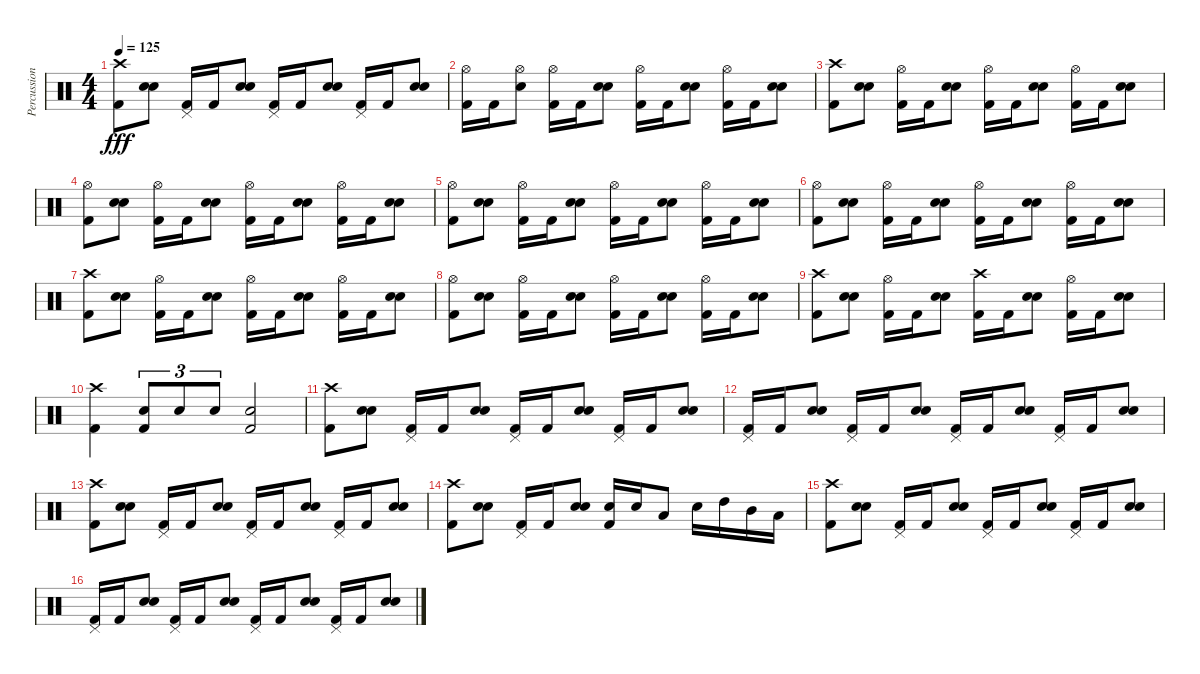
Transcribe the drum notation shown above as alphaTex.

\track ("Percussion" "Percussion") {instrument percussion}
\staff {score}
\articulation defaults
\ts (4 4)
\tempo 125
\clef neutral
\ks c
("Crash high (hit)" "Kick (hit) 2").8{dy fff} ("Snare (hit) 2" "Snare (hit) 2").8 ("Pedal Hi-Hat (hit)" "Kick (hit) 2").16 "Kick (hit) 2".16 ("Snare (hit) 2" "Snare (hit) 2").8 ("Pedal Hi-Hat (hit)" "Kick (hit) 2").16 "Kick (hit) 2".16 ("Snare (hit) 2" "Snare (hit) 2").8 ("Pedal Hi-Hat (hit)" "Kick (hit) 2").16 "Kick (hit) 2".16 ("Snare (hit) 2" "Snare (hit) 2").8 |
("Hi-Hat (open)" "Kick (hit) 2").16 "Kick (hit) 2".16 ("Hi-Hat (open)" "Snare (hit) 2").8 ("Hi-Hat (open)" "Kick (hit) 2").16 "Kick (hit) 2".16 ("Snare (hit) 2" "Snare (hit) 2").8 ("Hi-Hat (open)" "Kick (hit) 2").16 "Kick (hit) 2".16 ("Snare (hit) 2" "Snare (hit) 2").8 ("Hi-Hat (open)" "Kick (hit) 2").16 "Kick (hit) 2".16 ("Snare (hit) 2" "Snare (hit) 2").8 |
("Crash high (hit)" "Kick (hit) 2").8 ("Snare (hit) 2" "Snare (hit) 2").8 ("Hi-Hat (open)" "Kick (hit) 2").16 "Kick (hit) 2".16 ("Snare (hit) 2" "Snare (hit) 2").8 ("Hi-Hat (open)" "Kick (hit) 2").16 "Kick (hit) 2".16 ("Snare (hit) 2" "Snare (hit) 2").8 ("Hi-Hat (open)" "Kick (hit) 2").16 "Kick (hit) 2".16 ("Snare (hit) 2" "Snare (hit) 2").8 |
("Hi-Hat (open)" "Kick (hit) 2").8 ("Snare (hit) 2" "Snare (hit) 2").8 ("Hi-Hat (open)" "Kick (hit) 2").16 "Kick (hit) 2".16 ("Snare (hit) 2" "Snare (hit) 2").8 ("Hi-Hat (open)" "Kick (hit) 2").16 "Kick (hit) 2".16 ("Snare (hit) 2" "Snare (hit) 2").8 ("Hi-Hat (open)" "Kick (hit) 2").16 "Kick (hit) 2".16 ("Snare (hit) 2" "Snare (hit) 2").8 |
("Hi-Hat (open)" "Kick (hit) 2").8 ("Snare (hit) 2" "Snare (hit) 2").8 ("Hi-Hat (open)" "Kick (hit) 2").16 "Kick (hit) 2".16 ("Snare (hit) 2" "Snare (hit) 2").8 ("Hi-Hat (open)" "Kick (hit) 2").16 "Kick (hit) 2".16 ("Snare (hit) 2" "Snare (hit) 2").8 ("Hi-Hat (open)" "Kick (hit) 2").16 "Kick (hit) 2".16 ("Snare (hit) 2" "Snare (hit) 2").8 |
("Hi-Hat (open)" "Kick (hit) 2").8 ("Snare (hit) 2" "Snare (hit) 2").8 ("Hi-Hat (open)" "Kick (hit) 2").16 "Kick (hit) 2".16 ("Snare (hit) 2" "Snare (hit) 2").8 ("Hi-Hat (open)" "Kick (hit) 2").16 "Kick (hit) 2".16 ("Snare (hit) 2" "Snare (hit) 2").8 ("Hi-Hat (open)" "Kick (hit) 2").16 "Kick (hit) 2".16 ("Snare (hit) 2" "Snare (hit) 2").8 |
("Crash high (hit)" "Kick (hit) 2").8 ("Snare (hit) 2" "Snare (hit) 2").8 ("Hi-Hat (open)" "Kick (hit) 2").16 "Kick (hit) 2".16 ("Snare (hit) 2" "Snare (hit) 2").8 ("Hi-Hat (open)" "Kick (hit) 2").16 "Kick (hit) 2".16 ("Snare (hit) 2" "Snare (hit) 2").8 ("Hi-Hat (open)" "Kick (hit) 2").16 "Kick (hit) 2".16 ("Snare (hit) 2" "Snare (hit) 2").8 |
("Hi-Hat (open)" "Kick (hit) 2").8 ("Snare (hit) 2" "Snare (hit) 2").8 ("Hi-Hat (open)" "Kick (hit) 2").16 "Kick (hit) 2".16 ("Snare (hit) 2" "Snare (hit) 2").8 ("Hi-Hat (open)" "Kick (hit) 2").16 "Kick (hit) 2".16 ("Snare (hit) 2" "Snare (hit) 2").8 ("Hi-Hat (open)" "Kick (hit) 2").16 "Kick (hit) 2".16 ("Snare (hit) 2" "Snare (hit) 2").8 |
("Crash high (hit)" "Kick (hit) 2").8 ("Snare (hit) 2" "Snare (hit) 2").8 ("Hi-Hat (open)" "Kick (hit) 2").16 "Kick (hit) 2".16 ("Snare (hit) 2" "Snare (hit) 2").8 ("Crash high (hit)" "Kick (hit) 2").16 "Kick (hit) 2".16 ("Snare (hit) 2" "Snare (hit) 2").8 ("Hi-Hat (open)" "Kick (hit) 2").16 "Kick (hit) 2".16 ("Snare (hit) 2" "Snare (hit) 2").8 |
("Crash high (hit)" "Kick (hit) 2").4 ("Snare (hit) 2" "Kick (hit) 2").8{tu (3 2)} "Snare (hit) 2".8{tu (3 2)} "Snare (hit) 2".8{tu (3 2)} ("Snare (hit) 2" "Kick (hit) 2").2 |
("Crash high (hit)" "Kick (hit) 2").8 ("Snare (hit) 2" "Snare (hit) 2").8 ("Pedal Hi-Hat (hit)" "Kick (hit) 2").16 "Kick (hit) 2".16 ("Snare (hit) 2" "Snare (hit) 2").8 ("Pedal Hi-Hat (hit)" "Kick (hit) 2").16 "Kick (hit) 2".16 ("Snare (hit) 2" "Snare (hit) 2").8 ("Pedal Hi-Hat (hit)" "Kick (hit) 2").16 "Kick (hit) 2".16 ("Snare (hit) 2" "Snare (hit) 2").8 |
("Pedal Hi-Hat (hit)" "Kick (hit) 2").16 "Kick (hit) 2".16 ("Snare (hit) 2" "Snare (hit) 2").8 ("Pedal Hi-Hat (hit)" "Kick (hit) 2").16 "Kick (hit) 2".16 ("Snare (hit) 2" "Snare (hit) 2").8 ("Pedal Hi-Hat (hit)" "Kick (hit) 2").16 "Kick (hit) 2".16 ("Snare (hit) 2" "Snare (hit) 2").8 ("Pedal Hi-Hat (hit)" "Kick (hit) 2").16 "Kick (hit) 2".16 ("Snare (hit) 2" "Snare (hit) 2").8 |
("Crash high (hit)" "Kick (hit) 2").8 ("Snare (hit) 2" "Snare (hit) 2").8 ("Pedal Hi-Hat (hit)" "Kick (hit) 2").16 "Kick (hit) 2".16 ("Snare (hit) 2" "Snare (hit) 2").8 ("Pedal Hi-Hat (hit)" "Kick (hit) 2").16 "Kick (hit) 2".16 ("Snare (hit) 2" "Snare (hit) 2").8 ("Pedal Hi-Hat (hit)" "Kick (hit) 2").16 "Kick (hit) 2".16 ("Snare (hit) 2" "Snare (hit) 2").8 |
("Crash high (hit)" "Kick (hit) 2").8 ("Snare (hit) 2" "Snare (hit) 2").8 ("Pedal Hi-Hat (hit)" "Kick (hit) 2").16 "Kick (hit) 2".16 ("Snare (hit) 2" "Snare (hit) 2").8 ("Snare (hit) 2" "Kick (hit) 2").16 "Snare (hit) 2".16 "Low Tom (hit)".8 "Snare (hit) 2".16 "High Tom (hit)".16 "Mid Tom (hit)".16 "Low Tom (hit)".16 |
("Crash high (hit)" "Kick (hit) 2").8 ("Snare (hit) 2" "Snare (hit) 2").8 ("Pedal Hi-Hat (hit)" "Kick (hit) 2").16 "Kick (hit) 2".16 ("Snare (hit) 2" "Snare (hit) 2").8 ("Pedal Hi-Hat (hit)" "Kick (hit) 2").16 "Kick (hit) 2".16 ("Snare (hit) 2" "Snare (hit) 2").8 ("Pedal Hi-Hat (hit)" "Kick (hit) 2").16 "Kick (hit) 2".16 ("Snare (hit) 2" "Snare (hit) 2").8 |
("Pedal Hi-Hat (hit)" "Kick (hit) 2").16 "Kick (hit) 2".16 ("Snare (hit) 2" "Snare (hit) 2").8 ("Pedal Hi-Hat (hit)" "Kick (hit) 2").16 "Kick (hit) 2".16 ("Snare (hit) 2" "Snare (hit) 2").8 ("Pedal Hi-Hat (hit)" "Kick (hit) 2").16 "Kick (hit) 2".16 ("Snare (hit) 2" "Snare (hit) 2").8 ("Pedal Hi-Hat (hit)" "Kick (hit) 2").16 "Kick (hit) 2".16 ("Snare (hit) 2" "Snare (hit) 2").8
